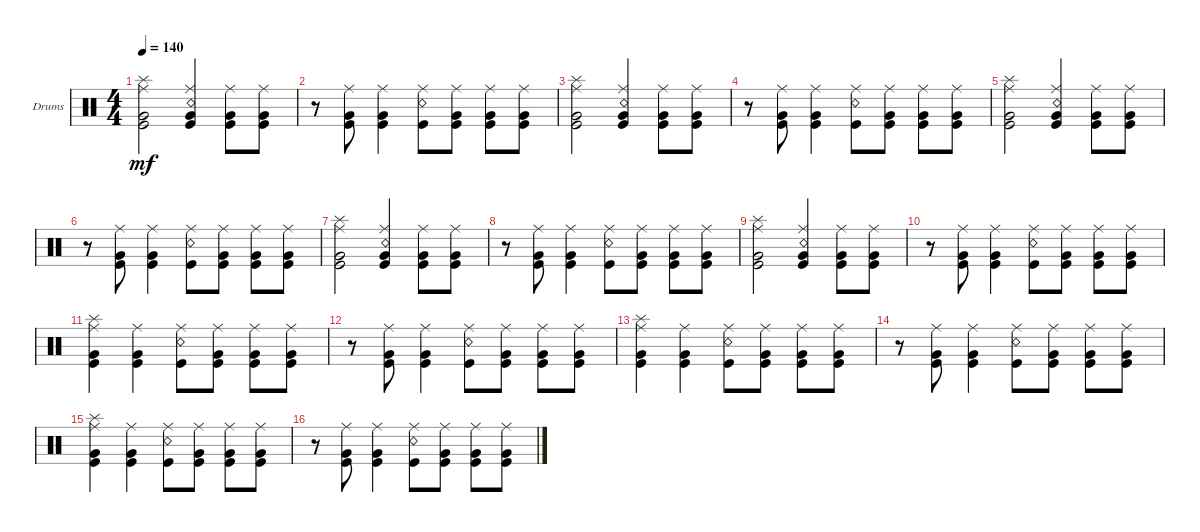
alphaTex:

\defaultSystemsLayout 4
\bracketExtendMode groupsimilarinstruments
\firstSystemTrackNameOrientation horizontal
\otherSystemsTrackNameOrientation horizontal
\track ("Drumkit" "Drums") {instrument percussion}
\staff {score}
\articulation defaults
\ts (4 4)
\tempo 140
\clef neutral
\ks c
("Splash (hit)" "Very Low Tom (hit)" "Kick (hit)" "Ride (middle)").2{dy mf} ("Snare (rim shot)" "Very Low Tom (hit)" "Kick (hit)" "Ride (middle)").4 ("Very Low Tom (hit)" "Kick (hit)" "Ride (middle)").8 ("Very Low Tom (hit)" "Kick (hit)" "Ride (middle)").8 |
r.8 ("Very Low Tom (hit)" "Kick (hit)" "Ride (middle)").8 ("Very Low Tom (hit)" "Kick (hit)" "Ride (middle)").4 ("Snare (rim shot)" "Kick (hit)" "Ride (middle)").8 ("Very Low Tom (hit)" "Kick (hit)" "Ride (middle)").8 ("Very Low Tom (hit)" "Kick (hit)" "Ride (middle)").8 ("Very Low Tom (hit)" "Kick (hit)" "Ride (middle)").8 |
("Splash (hit)" "Very Low Tom (hit)" "Kick (hit)" "Ride (middle)").2 ("Snare (rim shot)" "Very Low Tom (hit)" "Kick (hit)" "Ride (middle)").4 ("Very Low Tom (hit)" "Kick (hit)" "Ride (middle)").8 ("Very Low Tom (hit)" "Kick (hit)" "Ride (middle)").8 |
r.8 ("Very Low Tom (hit)" "Kick (hit)" "Ride (middle)").8 ("Very Low Tom (hit)" "Kick (hit)" "Ride (middle)").4 ("Snare (rim shot)" "Kick (hit)" "Ride (middle)").8 ("Very Low Tom (hit)" "Kick (hit)" "Ride (middle)").8 ("Very Low Tom (hit)" "Kick (hit)" "Ride (middle)").8 ("Very Low Tom (hit)" "Kick (hit)" "Ride (middle)").8 |
("Splash (hit)" "Very Low Tom (hit)" "Kick (hit)" "Ride (middle)").2 ("Snare (rim shot)" "Very Low Tom (hit)" "Kick (hit)" "Ride (middle)").4 ("Very Low Tom (hit)" "Kick (hit)" "Ride (middle)").8 ("Very Low Tom (hit)" "Kick (hit)" "Ride (middle)").8 |
r.8 ("Very Low Tom (hit)" "Kick (hit)" "Ride (middle)").8 ("Very Low Tom (hit)" "Kick (hit)" "Ride (middle)").4 ("Snare (rim shot)" "Kick (hit)" "Ride (middle)").8 ("Very Low Tom (hit)" "Kick (hit)" "Ride (middle)").8 ("Very Low Tom (hit)" "Kick (hit)" "Ride (middle)").8 ("Very Low Tom (hit)" "Kick (hit)" "Ride (middle)").8 |
("Splash (hit)" "Very Low Tom (hit)" "Kick (hit)" "Ride (middle)").2 ("Snare (rim shot)" "Very Low Tom (hit)" "Kick (hit)" "Ride (middle)").4 ("Very Low Tom (hit)" "Kick (hit)" "Ride (middle)").8 ("Very Low Tom (hit)" "Kick (hit)" "Ride (middle)").8 |
r.8 ("Very Low Tom (hit)" "Kick (hit)" "Ride (middle)").8 ("Very Low Tom (hit)" "Kick (hit)" "Ride (middle)").4 ("Snare (rim shot)" "Kick (hit)" "Ride (middle)").8 ("Very Low Tom (hit)" "Kick (hit)" "Ride (middle)").8 ("Very Low Tom (hit)" "Kick (hit)" "Ride (middle)").8 ("Very Low Tom (hit)" "Kick (hit)" "Ride (middle)").8 |
("Splash (hit)" "Very Low Tom (hit)" "Kick (hit)" "Ride (middle)").2 ("Snare (rim shot)" "Very Low Tom (hit)" "Kick (hit)" "Ride (middle)").4 ("Very Low Tom (hit)" "Kick (hit)" "Ride (middle)").8 ("Very Low Tom (hit)" "Kick (hit)" "Ride (middle)").8 |
r.8 ("Very Low Tom (hit)" "Kick (hit)" "Ride (middle)").8 ("Very Low Tom (hit)" "Kick (hit)" "Ride (middle)").4 ("Snare (rim shot)" "Kick (hit)" "Ride (middle)").8 ("Very Low Tom (hit)" "Kick (hit)" "Ride (middle)").8 ("Very Low Tom (hit)" "Kick (hit)" "Ride (middle)").8 ("Very Low Tom (hit)" "Kick (hit)" "Ride (middle)").8 |
("Splash (hit)" "Very Low Tom (hit)" "Ride (middle)" "Kick (hit)").4 ("Very Low Tom (hit)" "Ride (middle)" "Kick (hit)").4 ("Snare (rim shot)" "Ride (middle)" "Kick (hit)").8 ("Very Low Tom (hit)" "Ride (middle)" "Kick (hit)").8 ("Very Low Tom (hit)" "Ride (middle)" "Kick (hit)").8 ("Very Low Tom (hit)" "Ride (middle)" "Kick (hit)").8 |
r.8 ("Very Low Tom (hit)" "Kick (hit)" "Ride (middle)").8 ("Very Low Tom (hit)" "Kick (hit)" "Ride (middle)").4 ("Snare (rim shot)" "Kick (hit)" "Ride (middle)").8 ("Very Low Tom (hit)" "Kick (hit)" "Ride (middle)").8 ("Very Low Tom (hit)" "Kick (hit)" "Ride (middle)").8 ("Very Low Tom (hit)" "Kick (hit)" "Ride (middle)").8 |
("Splash (hit)" "Very Low Tom (hit)" "Ride (middle)" "Kick (hit)").4 ("Very Low Tom (hit)" "Ride (middle)" "Kick (hit)").4 ("Snare (rim shot)" "Ride (middle)" "Kick (hit)").8 ("Very Low Tom (hit)" "Ride (middle)" "Kick (hit)").8 ("Very Low Tom (hit)" "Ride (middle)" "Kick (hit)").8 ("Very Low Tom (hit)" "Ride (middle)" "Kick (hit)").8 |
r.8 ("Very Low Tom (hit)" "Kick (hit)" "Ride (middle)").8 ("Very Low Tom (hit)" "Kick (hit)" "Ride (middle)").4 ("Snare (rim shot)" "Kick (hit)" "Ride (middle)").8 ("Very Low Tom (hit)" "Kick (hit)" "Ride (middle)").8 ("Very Low Tom (hit)" "Kick (hit)" "Ride (middle)").8 ("Very Low Tom (hit)" "Kick (hit)" "Ride (middle)").8 |
("Splash (hit)" "Very Low Tom (hit)" "Ride (middle)" "Kick (hit)").4 ("Very Low Tom (hit)" "Ride (middle)" "Kick (hit)").4 ("Snare (rim shot)" "Ride (middle)" "Kick (hit)").8 ("Very Low Tom (hit)" "Ride (middle)" "Kick (hit)").8 ("Very Low Tom (hit)" "Ride (middle)" "Kick (hit)").8 ("Very Low Tom (hit)" "Ride (middle)" "Kick (hit)").8 |
r.8 ("Very Low Tom (hit)" "Kick (hit)" "Ride (middle)").8 ("Very Low Tom (hit)" "Kick (hit)" "Ride (middle)").4 ("Snare (rim shot)" "Kick (hit)" "Ride (middle)").8 ("Very Low Tom (hit)" "Kick (hit)" "Ride (middle)").8 ("Very Low Tom (hit)" "Kick (hit)" "Ride (middle)").8 ("Very Low Tom (hit)" "Kick (hit)" "Ride (middle)").8
